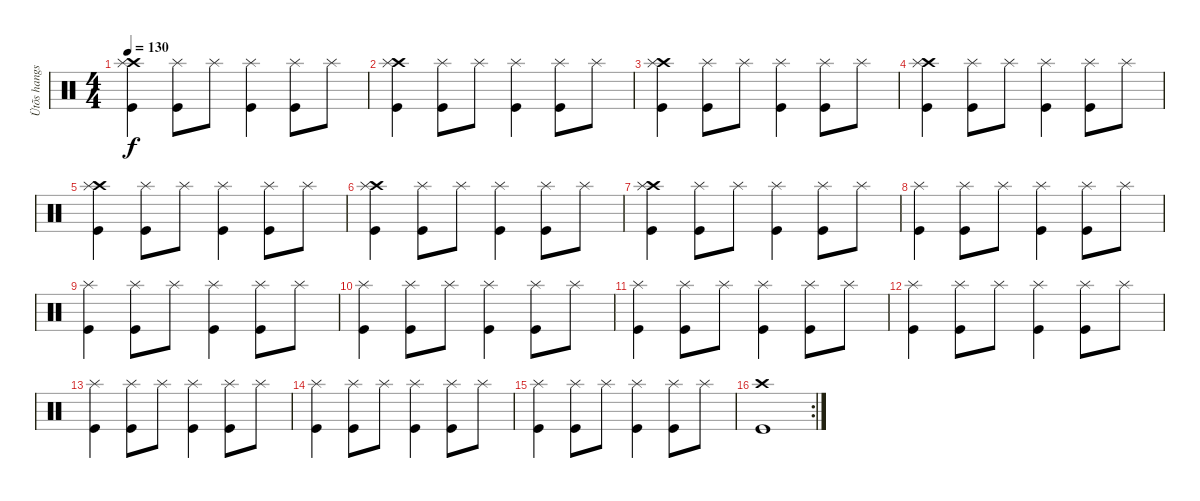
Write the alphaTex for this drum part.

\track ("Ütõs hangszer" "Ütõs hangs") {instrument percussion}
\staff {score}
\articulation defaults
\ts (4 4)
\tempo 130
\clef neutral
\ks c
("Crash high (hit)" "Splash (hit)" "Kick (hit)").4{dy f} ("Splash (hit)" "Kick (hit)").8 "Splash (hit)".8 ("Splash (hit)" "Kick (hit)").4 ("Splash (hit)" "Kick (hit)").8 "Splash (hit)".8 |
("Crash high (hit)" "Splash (hit)" "Kick (hit)").4 ("Splash (hit)" "Kick (hit)").8 "Splash (hit)".8 ("Splash (hit)" "Kick (hit)").4 ("Splash (hit)" "Kick (hit)").8 "Splash (hit)".8 |
("Crash high (hit)" "Splash (hit)" "Kick (hit)").4 ("Splash (hit)" "Kick (hit)").8 "Splash (hit)".8 ("Splash (hit)" "Kick (hit)").4 ("Splash (hit)" "Kick (hit)").8 "Splash (hit)".8 |
("Crash high (hit)" "Splash (hit)" "Kick (hit)").4 ("Splash (hit)" "Kick (hit)").8 "Splash (hit)".8 ("Splash (hit)" "Kick (hit)").4 ("Splash (hit)" "Kick (hit)").8 "Splash (hit)".8 |
("Crash high (hit)" "Splash (hit)" "Kick (hit)").4 ("Splash (hit)" "Kick (hit)").8 "Splash (hit)".8 ("Splash (hit)" "Kick (hit)").4 ("Splash (hit)" "Kick (hit)").8 "Splash (hit)".8 |
("Crash high (hit)" "Splash (hit)" "Kick (hit)").4 ("Splash (hit)" "Kick (hit)").8 "Splash (hit)".8 ("Splash (hit)" "Kick (hit)").4 ("Splash (hit)" "Kick (hit)").8 "Splash (hit)".8 |
("Crash high (hit)" "Splash (hit)" "Kick (hit)").4 ("Splash (hit)" "Kick (hit)").8 "Splash (hit)".8 ("Splash (hit)" "Kick (hit)").4 ("Splash (hit)" "Kick (hit)").8 "Splash (hit)".8 |
("Splash (hit)" "Kick (hit)").4 ("Splash (hit)" "Kick (hit)").8 "Splash (hit)".8 ("Splash (hit)" "Kick (hit)").4 ("Splash (hit)" "Kick (hit)").8 "Splash (hit)".8 |
("Splash (hit)" "Kick (hit)").4 ("Splash (hit)" "Kick (hit)").8 "Splash (hit)".8 ("Splash (hit)" "Kick (hit)").4 ("Splash (hit)" "Kick (hit)").8 "Splash (hit)".8 |
("Splash (hit)" "Kick (hit)").4 ("Splash (hit)" "Kick (hit)").8 "Splash (hit)".8 ("Splash (hit)" "Kick (hit)").4 ("Splash (hit)" "Kick (hit)").8 "Splash (hit)".8 |
("Splash (hit)" "Kick (hit)").4 ("Splash (hit)" "Kick (hit)").8 "Splash (hit)".8 ("Splash (hit)" "Kick (hit)").4 ("Splash (hit)" "Kick (hit)").8 "Splash (hit)".8 |
("Splash (hit)" "Kick (hit)").4 ("Splash (hit)" "Kick (hit)").8 "Splash (hit)".8 ("Splash (hit)" "Kick (hit)").4 ("Splash (hit)" "Kick (hit)").8 "Splash (hit)".8 |
("Splash (hit)" "Kick (hit)").4 ("Splash (hit)" "Kick (hit)").8 "Splash (hit)".8 ("Splash (hit)" "Kick (hit)").4 ("Splash (hit)" "Kick (hit)").8 "Splash (hit)".8 |
("Splash (hit)" "Kick (hit)").4 ("Splash (hit)" "Kick (hit)").8 "Splash (hit)".8 ("Splash (hit)" "Kick (hit)").4 ("Splash (hit)" "Kick (hit)").8 "Splash (hit)".8 |
("Splash (hit)" "Kick (hit)").4 ("Splash (hit)" "Kick (hit)").8 "Splash (hit)".8 ("Splash (hit)" "Kick (hit)").4 ("Splash (hit)" "Kick (hit)").8 "Splash (hit)".8 |
\rc 2
("Crash high (hit)" "Kick (hit)").1
